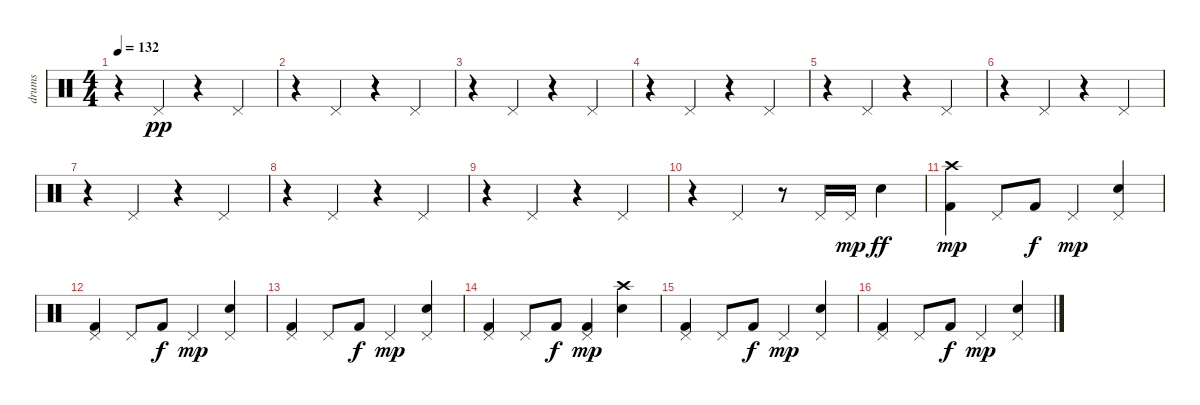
\track ("drums" "drums") {instrument percussion}
\staff {score}
\articulation defaults
\ts (4 4)
\tempo 132
\clef neutral
\ks c
r.4{dy pp} "Pedal Hi-Hat (hit)".4 r.4 "Pedal Hi-Hat (hit)".4 |
r.4 "Pedal Hi-Hat (hit)".4 r.4 "Pedal Hi-Hat (hit)".4 |
r.4 "Pedal Hi-Hat (hit)".4 r.4 "Pedal Hi-Hat (hit)".4 |
r.4 "Pedal Hi-Hat (hit)".4 r.4 "Pedal Hi-Hat (hit)".4 |
r.4 "Pedal Hi-Hat (hit)".4 r.4 "Pedal Hi-Hat (hit)".4 |
r.4 "Pedal Hi-Hat (hit)".4 r.4 "Pedal Hi-Hat (hit)".4 |
r.4 "Pedal Hi-Hat (hit)".4 r.4 "Pedal Hi-Hat (hit)".4 |
r.4 "Pedal Hi-Hat (hit)".4 r.4 "Pedal Hi-Hat (hit)".4 |
r.4 "Pedal Hi-Hat (hit)".4 r.4 "Pedal Hi-Hat (hit)".4 |
r.4 "Pedal Hi-Hat (hit)".4 r.8 "Pedal Hi-Hat (hit)"{tr (44 64)}.16 "Pedal Hi-Hat (hit)"{tr (44 64)}.16{dy mp} "Electric Snare (hit)".4{dy ff} |
("Kick (hit) 2" "Crash high (hit)").4{dy mp} "Pedal Hi-Hat (hit)".8 "Kick (hit) 2".8{dy f} "Pedal Hi-Hat (hit)".4{dy mp} ("Electric Snare (hit)" "Pedal Hi-Hat (hit)").4 |
("Kick (hit) 2" "Pedal Hi-Hat (hit)").4 "Pedal Hi-Hat (hit)".8 "Kick (hit) 2".8{dy f} "Pedal Hi-Hat (hit)".4{dy mp} ("Electric Snare (hit)" "Pedal Hi-Hat (hit)").4 |
("Kick (hit) 2" "Pedal Hi-Hat (hit)").4 "Pedal Hi-Hat (hit)".8 "Kick (hit) 2".8{dy f} "Pedal Hi-Hat (hit)".4{dy mp} ("Electric Snare (hit)" "Pedal Hi-Hat (hit)").4 |
("Kick (hit) 2" "Pedal Hi-Hat (hit)").4 "Pedal Hi-Hat (hit)".8 "Kick (hit) 2".8{dy f} ("Kick (hit) 2" "Pedal Hi-Hat (hit)").4{dy mp} ("Electric Snare (hit)" "Crash high (hit)").4 |
("Kick (hit) 2" "Pedal Hi-Hat (hit)").4 "Pedal Hi-Hat (hit)".8 "Kick (hit) 2".8{dy f} "Pedal Hi-Hat (hit)".4{dy mp} ("Electric Snare (hit)" "Pedal Hi-Hat (hit)").4 |
("Kick (hit) 2" "Pedal Hi-Hat (hit)").4 "Pedal Hi-Hat (hit)".8 "Kick (hit) 2".8{dy f} "Pedal Hi-Hat (hit)".4{dy mp} ("Electric Snare (hit)" "Pedal Hi-Hat (hit)").4
